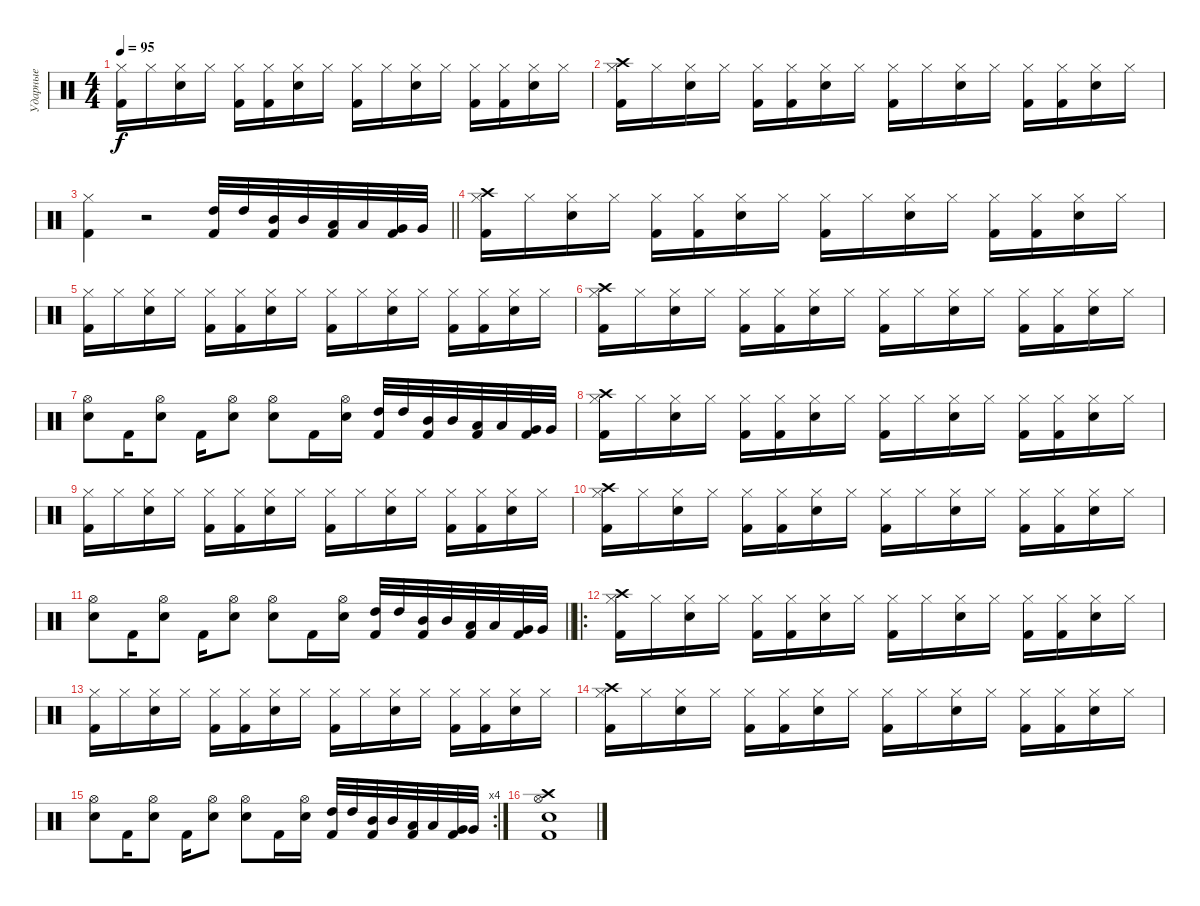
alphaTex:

\track ("Ударные" "Ударные") {instrument percussion}
\staff {score}
\articulation defaults
\ts (4 4)
\tempo 95
\clef neutral
\ks c
("Kick (hit) 2" "Hi-Hat (closed)").16{dy f} "Hi-Hat (closed)".16 ("Snare (hit) 2" "Hi-Hat (closed)").16 "Hi-Hat (closed)".16 ("Kick (hit) 2" "Hi-Hat (closed)").16 ("Kick (hit) 2" "Hi-Hat (closed)").16 ("Snare (hit) 2" "Hi-Hat (closed)").16 "Hi-Hat (closed)".16 ("Kick (hit) 2" "Hi-Hat (closed)").16 "Hi-Hat (closed)".16 ("Snare (hit) 2" "Hi-Hat (closed)").16 "Hi-Hat (closed)".16 ("Kick (hit) 2" "Hi-Hat (closed)").16 ("Kick (hit) 2" "Hi-Hat (closed)").16 ("Snare (hit) 2" "Hi-Hat (closed)").16 "Hi-Hat (closed)".16 |
("Crash high (hit)" "Kick (hit) 2" "Hi-Hat (closed)").16 "Hi-Hat (closed)".16 ("Snare (hit) 2" "Hi-Hat (closed)").16 "Hi-Hat (closed)".16 ("Kick (hit) 2" "Hi-Hat (closed)").16 ("Kick (hit) 2" "Hi-Hat (closed)").16 ("Snare (hit) 2" "Hi-Hat (closed)").16 "Hi-Hat (closed)".16 ("Kick (hit) 2" "Hi-Hat (closed)").16 "Hi-Hat (closed)".16 ("Snare (hit) 2" "Hi-Hat (closed)").16 "Hi-Hat (closed)".16 ("Kick (hit) 2" "Hi-Hat (closed)").16 ("Kick (hit) 2" "Hi-Hat (closed)").16 ("Snare (hit) 2" "Hi-Hat (closed)").16 "Hi-Hat (closed)".16 |
\barLineRight lightlight
("Kick (hit) 2" "Hi-Hat (closed)").4 r.2 ("Kick (hit) 2" "High Tom (hit)").32 "High Tom (hit)".32 ("Kick (hit) 2" "Mid Tom (hit)").32 "Mid Tom (hit)".32 ("Kick (hit) 2" "Low Tom (hit)").32 "Low Tom (hit)".32 ("Kick (hit) 2" "Very Low Tom (hit)").32 "Very Low Tom (hit)".32 |
("Crash high (hit)" "Kick (hit) 2" "Hi-Hat (closed)").16 "Hi-Hat (closed)".16 ("Snare (hit) 2" "Hi-Hat (closed)").16 "Hi-Hat (closed)".16 ("Kick (hit) 2" "Hi-Hat (closed)").16 ("Kick (hit) 2" "Hi-Hat (closed)").16 ("Snare (hit) 2" "Hi-Hat (closed)").16 "Hi-Hat (closed)".16 ("Kick (hit) 2" "Hi-Hat (closed)").16 "Hi-Hat (closed)".16 ("Snare (hit) 2" "Hi-Hat (closed)").16 "Hi-Hat (closed)".16 ("Kick (hit) 2" "Hi-Hat (closed)").16 ("Kick (hit) 2" "Hi-Hat (closed)").16 ("Snare (hit) 2" "Hi-Hat (closed)").16 "Hi-Hat (closed)".16 |
("Kick (hit) 2" "Hi-Hat (closed)").16 "Hi-Hat (closed)".16 ("Snare (hit) 2" "Hi-Hat (closed)").16 "Hi-Hat (closed)".16 ("Kick (hit) 2" "Hi-Hat (closed)").16 ("Kick (hit) 2" "Hi-Hat (closed)").16 ("Snare (hit) 2" "Hi-Hat (closed)").16 "Hi-Hat (closed)".16 ("Kick (hit) 2" "Hi-Hat (closed)").16 "Hi-Hat (closed)".16 ("Snare (hit) 2" "Hi-Hat (closed)").16 "Hi-Hat (closed)".16 ("Kick (hit) 2" "Hi-Hat (closed)").16 ("Kick (hit) 2" "Hi-Hat (closed)").16 ("Snare (hit) 2" "Hi-Hat (closed)").16 "Hi-Hat (closed)".16 |
("Crash high (hit)" "Kick (hit) 2" "Hi-Hat (closed)").16 "Hi-Hat (closed)".16 ("Snare (hit) 2" "Hi-Hat (closed)").16 "Hi-Hat (closed)".16 ("Kick (hit) 2" "Hi-Hat (closed)").16 ("Kick (hit) 2" "Hi-Hat (closed)").16 ("Snare (hit) 2" "Hi-Hat (closed)").16 "Hi-Hat (closed)".16 ("Kick (hit) 2" "Hi-Hat (closed)").16 "Hi-Hat (closed)".16 ("Snare (hit) 2" "Hi-Hat (closed)").16 "Hi-Hat (closed)".16 ("Kick (hit) 2" "Hi-Hat (closed)").16 ("Kick (hit) 2" "Hi-Hat (closed)").16 ("Snare (hit) 2" "Hi-Hat (closed)").16 "Hi-Hat (closed)".16 |
("Hi-Hat (open)" "Snare (hit) 2").8 "Kick (hit) 2".16 ("Hi-Hat (open)" "Snare (hit) 2").8 "Kick (hit) 2".16 ("Hi-Hat (open)" "Snare (hit) 2").8 ("Hi-Hat (open)" "Snare (hit) 2").8 "Kick (hit) 2".16 ("Hi-Hat (open)" "Snare (hit) 2").16 ("Kick (hit) 2" "High Tom (hit)").32 "High Tom (hit)".32 ("Kick (hit) 2" "Mid Tom (hit)").32 "Mid Tom (hit)".32 ("Kick (hit) 2" "Low Tom (hit)").32 "Low Tom (hit)".32 ("Kick (hit) 2" "Very Low Tom (hit)").32 "Very Low Tom (hit)".32 |
("Crash high (hit)" "Kick (hit) 2" "Hi-Hat (closed)").16 "Hi-Hat (closed)".16 ("Snare (hit) 2" "Hi-Hat (closed)").16 "Hi-Hat (closed)".16 ("Kick (hit) 2" "Hi-Hat (closed)").16 ("Kick (hit) 2" "Hi-Hat (closed)").16 ("Snare (hit) 2" "Hi-Hat (closed)").16 "Hi-Hat (closed)".16 ("Kick (hit) 2" "Hi-Hat (closed)").16 "Hi-Hat (closed)".16 ("Snare (hit) 2" "Hi-Hat (closed)").16 "Hi-Hat (closed)".16 ("Kick (hit) 2" "Hi-Hat (closed)").16 ("Kick (hit) 2" "Hi-Hat (closed)").16 ("Snare (hit) 2" "Hi-Hat (closed)").16 "Hi-Hat (closed)".16 |
("Kick (hit) 2" "Hi-Hat (closed)").16 "Hi-Hat (closed)".16 ("Snare (hit) 2" "Hi-Hat (closed)").16 "Hi-Hat (closed)".16 ("Kick (hit) 2" "Hi-Hat (closed)").16 ("Kick (hit) 2" "Hi-Hat (closed)").16 ("Snare (hit) 2" "Hi-Hat (closed)").16 "Hi-Hat (closed)".16 ("Kick (hit) 2" "Hi-Hat (closed)").16 "Hi-Hat (closed)".16 ("Snare (hit) 2" "Hi-Hat (closed)").16 "Hi-Hat (closed)".16 ("Kick (hit) 2" "Hi-Hat (closed)").16 ("Kick (hit) 2" "Hi-Hat (closed)").16 ("Snare (hit) 2" "Hi-Hat (closed)").16 "Hi-Hat (closed)".16 |
("Crash high (hit)" "Kick (hit) 2" "Hi-Hat (closed)").16 "Hi-Hat (closed)".16 ("Snare (hit) 2" "Hi-Hat (closed)").16 "Hi-Hat (closed)".16 ("Kick (hit) 2" "Hi-Hat (closed)").16 ("Kick (hit) 2" "Hi-Hat (closed)").16 ("Snare (hit) 2" "Hi-Hat (closed)").16 "Hi-Hat (closed)".16 ("Kick (hit) 2" "Hi-Hat (closed)").16 "Hi-Hat (closed)".16 ("Snare (hit) 2" "Hi-Hat (closed)").16 "Hi-Hat (closed)".16 ("Kick (hit) 2" "Hi-Hat (closed)").16 ("Kick (hit) 2" "Hi-Hat (closed)").16 ("Snare (hit) 2" "Hi-Hat (closed)").16 "Hi-Hat (closed)".16 |
\barLineRight lightlight
("Hi-Hat (open)" "Snare (hit) 2").8 "Kick (hit) 2".16 ("Hi-Hat (open)" "Snare (hit) 2").8 "Kick (hit) 2".16 ("Hi-Hat (open)" "Snare (hit) 2").8 ("Hi-Hat (open)" "Snare (hit) 2").8 "Kick (hit) 2".16 ("Hi-Hat (open)" "Snare (hit) 2").16 ("Kick (hit) 2" "High Tom (hit)").32 "High Tom (hit)".32 ("Kick (hit) 2" "Mid Tom (hit)").32 "Mid Tom (hit)".32 ("Kick (hit) 2" "Low Tom (hit)").32 "Low Tom (hit)".32 ("Kick (hit) 2" "Very Low Tom (hit)").32 "Very Low Tom (hit)".32 |
\ro
("Crash high (hit)" "Kick (hit) 2" "Hi-Hat (closed)").16 "Hi-Hat (closed)".16 ("Snare (hit) 2" "Hi-Hat (closed)").16 "Hi-Hat (closed)".16 ("Kick (hit) 2" "Hi-Hat (closed)").16 ("Kick (hit) 2" "Hi-Hat (closed)").16 ("Snare (hit) 2" "Hi-Hat (closed)").16 "Hi-Hat (closed)".16 ("Kick (hit) 2" "Hi-Hat (closed)").16 "Hi-Hat (closed)".16 ("Snare (hit) 2" "Hi-Hat (closed)").16 "Hi-Hat (closed)".16 ("Kick (hit) 2" "Hi-Hat (closed)").16 ("Kick (hit) 2" "Hi-Hat (closed)").16 ("Snare (hit) 2" "Hi-Hat (closed)").16 "Hi-Hat (closed)".16 |
("Kick (hit) 2" "Hi-Hat (closed)").16 "Hi-Hat (closed)".16 ("Snare (hit) 2" "Hi-Hat (closed)").16 "Hi-Hat (closed)".16 ("Kick (hit) 2" "Hi-Hat (closed)").16 ("Kick (hit) 2" "Hi-Hat (closed)").16 ("Snare (hit) 2" "Hi-Hat (closed)").16 "Hi-Hat (closed)".16 ("Kick (hit) 2" "Hi-Hat (closed)").16 "Hi-Hat (closed)".16 ("Snare (hit) 2" "Hi-Hat (closed)").16 "Hi-Hat (closed)".16 ("Kick (hit) 2" "Hi-Hat (closed)").16 ("Kick (hit) 2" "Hi-Hat (closed)").16 ("Snare (hit) 2" "Hi-Hat (closed)").16 "Hi-Hat (closed)".16 |
("Crash high (hit)" "Kick (hit) 2" "Hi-Hat (closed)").16 "Hi-Hat (closed)".16 ("Snare (hit) 2" "Hi-Hat (closed)").16 "Hi-Hat (closed)".16 ("Kick (hit) 2" "Hi-Hat (closed)").16 ("Kick (hit) 2" "Hi-Hat (closed)").16 ("Snare (hit) 2" "Hi-Hat (closed)").16 "Hi-Hat (closed)".16 ("Kick (hit) 2" "Hi-Hat (closed)").16 "Hi-Hat (closed)".16 ("Snare (hit) 2" "Hi-Hat (closed)").16 "Hi-Hat (closed)".16 ("Kick (hit) 2" "Hi-Hat (closed)").16 ("Kick (hit) 2" "Hi-Hat (closed)").16 ("Snare (hit) 2" "Hi-Hat (closed)").16 "Hi-Hat (closed)".16 |
\rc 4
("Hi-Hat (open)" "Snare (hit) 2").8 "Kick (hit) 2".16 ("Hi-Hat (open)" "Snare (hit) 2").8 "Kick (hit) 2".16 ("Hi-Hat (open)" "Snare (hit) 2").8 ("Hi-Hat (open)" "Snare (hit) 2").8 "Kick (hit) 2".16 ("Hi-Hat (open)" "Snare (hit) 2").16 ("Kick (hit) 2" "High Tom (hit)").32 "High Tom (hit)".32 ("Kick (hit) 2" "Mid Tom (hit)").32 "Mid Tom (hit)".32 ("Kick (hit) 2" "Low Tom (hit)").32 "Low Tom (hit)".32 ("Kick (hit) 2" "Very Low Tom (hit)").32 "Very Low Tom (hit)".32 |
("Hi-Hat (open)" "Kick (hit) 2" "Snare (hit) 2" "Crash high (hit)").1
